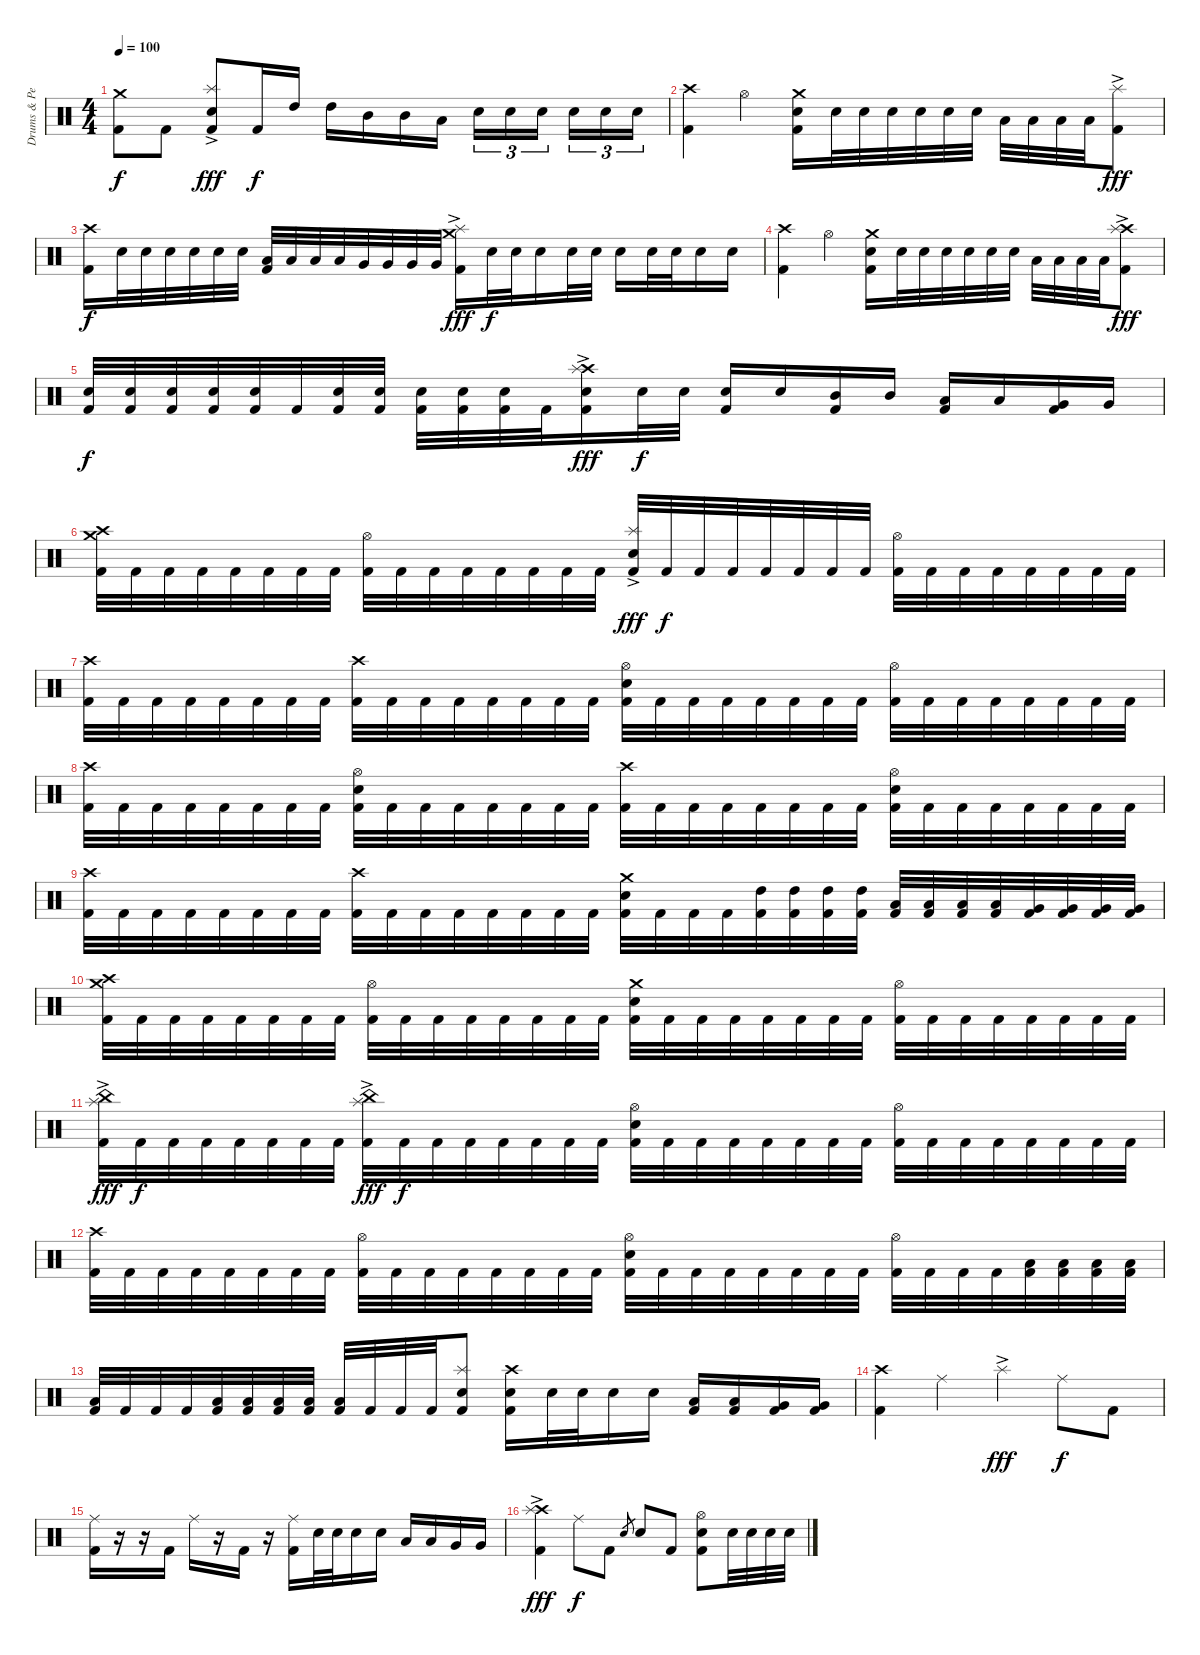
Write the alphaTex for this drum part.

\track ("Drums & Percussion" "Drums & Pe") {instrument percussion}
\staff {score}
\articulation defaults
\ts (4 4)
\tempo 100
\clef neutral
\ks c
("Crash medium (hit)" "Kick (hit) 2").8{dy f} "Kick (hit) 2".8 ("Splash (hit)"{ac} "Electric Snare (hit)" "Kick (hit) 2").8{dy fff} "Kick (hit) 2".16{dy f} "High Tom (hit)".16 "High Tom (hit)".16 "Mid Tom (hit)".16 "Mid Tom (hit)".16 "Low Tom (hit)".16 "Electric Snare (hit)".16{tu (3 2)} "Electric Snare (hit)".16{tu (3 2)} "Electric Snare (hit)".16{tu (3 2) beam splitsecondary} "Electric Snare (hit)".16{tu (3 2)} "Electric Snare (hit)".16{tu (3 2)} "Electric Snare (hit)".16{tu (3 2)} |
("Crash high (hit)" "Kick (hit) 2").4 "Hi-Hat (open)".4 ("Crash medium (hit)" "Electric Snare (hit)" "Kick (hit) 2").16 "Electric Snare (hit)".32 "Electric Snare (hit)".32 "Electric Snare (hit)".32 "Electric Snare (hit)".32 "Electric Snare (hit)".32 "Electric Snare (hit)".32 "Low Tom (hit)".32 "Low Tom (hit)".32 "Low Tom (hit)".32 "Low Tom (hit)".32 ("Splash (hit)"{ac} "Kick (hit) 2").8{dy fff} |
("Crash high (hit)" "Kick (hit) 2").16{dy f} "Electric Snare (hit)".32 "Electric Snare (hit)".32 "Electric Snare (hit)".32 "Electric Snare (hit)".32 "Electric Snare (hit)".32 "Electric Snare (hit)".32 ("Low Tom (hit)" "Kick (hit) 2").32 "Low Tom (hit)".32 "Low Tom (hit)".32 "Low Tom (hit)".32 "Very Low Tom (hit)".32 "Very Low Tom (hit)".32 "Very Low Tom (hit)".32 "Very Low Tom (hit)".32 ("Crash medium (hit)" "Splash (hit)"{ac} "Kick (hit) 2").16{dy fff} "Electric Snare (hit)".32{dy f} "Electric Snare (hit)".32 "Electric Snare (hit)".16 "Electric Snare (hit)".32 "Electric Snare (hit)".32 "Electric Snare (hit)".16 "Electric Snare (hit)".32 "Electric Snare (hit)".32 "Electric Snare (hit)".16 "Electric Snare (hit)".16 |
("Crash high (hit)" "Kick (hit) 2").4 "Hi-Hat (open)".4 ("Crash medium (hit)" "Electric Snare (hit)" "Kick (hit) 2").16 "Electric Snare (hit)".32 "Electric Snare (hit)".32 "Electric Snare (hit)".32 "Electric Snare (hit)".32 "Electric Snare (hit)".32 "Electric Snare (hit)".32 "Low Tom (hit)".32 "Low Tom (hit)".32 "Low Tom (hit)".32 "Low Tom (hit)".32 ("Crash high (hit)" "Splash (hit)"{ac} "Kick (hit) 2").8{dy fff} |
("Electric Snare (hit)" "Kick (hit) 2").32{dy f} ("Electric Snare (hit)" "Kick (hit) 2").32 ("Electric Snare (hit)" "Kick (hit) 2").32 ("Electric Snare (hit)" "Kick (hit) 2").32 ("Electric Snare (hit)" "Kick (hit) 2").32 "Kick (hit) 2".32 ("Electric Snare (hit)" "Kick (hit) 2").32 ("Electric Snare (hit)" "Kick (hit) 2").32 ("Electric Snare (hit)" "Kick (hit) 2").32 ("Electric Snare (hit)" "Kick (hit) 2").32 ("Electric Snare (hit)" "Kick (hit) 2").32 "Kick (hit) 2".32 ("Crash high (hit)" "Splash (hit)"{ac} "Electric Snare (hit)" "Kick (hit) 2").16{dy fff} "Electric Snare (hit)".32{dy f} "Electric Snare (hit)".32 ("Electric Snare (hit)" "Kick (hit) 2").16 "Electric Snare (hit)".16 ("Mid Tom (hit)" "Kick (hit) 2").16 "Mid Tom (hit)".16 ("Low Tom (hit)" "Kick (hit) 2").16 "Low Tom (hit)".16 ("Very Low Tom (hit)" "Kick (hit) 2").16 "Very Low Tom (hit)".16 |
("Crash high (hit)" "Crash medium (hit)" "Kick (hit) 2").32 "Kick (hit) 2".32 "Kick (hit) 2".32 "Kick (hit) 2".32 "Kick (hit) 2".32 "Kick (hit) 2".32 "Kick (hit) 2".32 "Kick (hit) 2".32 ("Hi-Hat (open)" "Kick (hit) 2").32 "Kick (hit) 2".32 "Kick (hit) 2".32 "Kick (hit) 2".32 "Kick (hit) 2".32 "Kick (hit) 2".32 "Kick (hit) 2".32 "Kick (hit) 2".32 ("Splash (hit)"{ac} "Electric Snare (hit)" "Kick (hit) 2").32{dy fff} "Kick (hit) 2".32{dy f} "Kick (hit) 2".32 "Kick (hit) 2".32 "Kick (hit) 2".32 "Kick (hit) 2".32 "Kick (hit) 2".32 "Kick (hit) 2".32 ("Hi-Hat (open)" "Kick (hit) 2").32 "Kick (hit) 2".32 "Kick (hit) 2".32 "Kick (hit) 2".32 "Kick (hit) 2".32 "Kick (hit) 2".32 "Kick (hit) 2".32 "Kick (hit) 2".32 |
("Crash high (hit)" "Kick (hit) 2").32 "Kick (hit) 2".32 "Kick (hit) 2".32 "Kick (hit) 2".32 "Kick (hit) 2".32 "Kick (hit) 2".32 "Kick (hit) 2".32 "Kick (hit) 2".32 ("Crash high (hit)" "Kick (hit) 2").32 "Kick (hit) 2".32 "Kick (hit) 2".32 "Kick (hit) 2".32 "Kick (hit) 2".32 "Kick (hit) 2".32 "Kick (hit) 2".32 "Kick (hit) 2".32 ("Hi-Hat (open)" "Electric Snare (hit)" "Kick (hit) 2").32 "Kick (hit) 2".32 "Kick (hit) 2".32 "Kick (hit) 2".32 "Kick (hit) 2".32 "Kick (hit) 2".32 "Kick (hit) 2".32 "Kick (hit) 2".32 ("Hi-Hat (open)" "Kick (hit) 2").32 "Kick (hit) 2".32 "Kick (hit) 2".32 "Kick (hit) 2".32 "Kick (hit) 2".32 "Kick (hit) 2".32 "Kick (hit) 2".32 "Kick (hit) 2".32 |
("Crash high (hit)" "Kick (hit) 2").32 "Kick (hit) 2".32 "Kick (hit) 2".32 "Kick (hit) 2".32 "Kick (hit) 2".32 "Kick (hit) 2".32 "Kick (hit) 2".32 "Kick (hit) 2".32 ("Hi-Hat (open)" "Electric Snare (hit)" "Kick (hit) 2").32 "Kick (hit) 2".32 "Kick (hit) 2".32 "Kick (hit) 2".32 "Kick (hit) 2".32 "Kick (hit) 2".32 "Kick (hit) 2".32 "Kick (hit) 2".32 ("Crash high (hit)" "Kick (hit) 2").32 "Kick (hit) 2".32 "Kick (hit) 2".32 "Kick (hit) 2".32 "Kick (hit) 2".32 "Kick (hit) 2".32 "Kick (hit) 2".32 "Kick (hit) 2".32 ("Hi-Hat (open)" "Electric Snare (hit)" "Kick (hit) 2").32 "Kick (hit) 2".32 "Kick (hit) 2".32 "Kick (hit) 2".32 "Kick (hit) 2".32 "Kick (hit) 2".32 "Kick (hit) 2".32 "Kick (hit) 2".32 |
("Crash high (hit)" "Kick (hit) 2").32 "Kick (hit) 2".32 "Kick (hit) 2".32 "Kick (hit) 2".32 "Kick (hit) 2".32 "Kick (hit) 2".32 "Kick (hit) 2".32 "Kick (hit) 2".32 ("Crash high (hit)" "Kick (hit) 2").32 "Kick (hit) 2".32 "Kick (hit) 2".32 "Kick (hit) 2".32 "Kick (hit) 2".32 "Kick (hit) 2".32 "Kick (hit) 2".32 "Kick (hit) 2".32 ("Crash medium (hit)" "Electric Snare (hit)" "Kick (hit) 2").32 "Kick (hit) 2".32 "Kick (hit) 2".32 "Kick (hit) 2".32 ("High Tom (hit)" "Kick (hit) 2").32 ("High Tom (hit)" "Kick (hit) 2").32 ("High Tom (hit)" "Kick (hit) 2").32 ("High Tom (hit)" "Kick (hit) 2").32 ("Low Tom (hit)" "Kick (hit) 2").32 ("Low Tom (hit)" "Kick (hit) 2").32 ("Low Tom (hit)" "Kick (hit) 2").32 ("Low Tom (hit)" "Kick (hit) 2").32 ("Very Low Tom (hit)" "Kick (hit) 2").32 ("Very Low Tom (hit)" "Kick (hit) 2").32 ("Very Low Tom (hit)" "Kick (hit) 2").32 ("Very Low Tom (hit)" "Kick (hit) 2").32 |
("Crash high (hit)" "Crash medium (hit)" "Kick (hit) 2").32 "Kick (hit) 2".32 "Kick (hit) 2".32 "Kick (hit) 2".32 "Kick (hit) 2".32 "Kick (hit) 2".32 "Kick (hit) 2".32 "Kick (hit) 2".32 ("Hi-Hat (open)" "Kick (hit) 2").32 "Kick (hit) 2".32 "Kick (hit) 2".32 "Kick (hit) 2".32 "Kick (hit) 2".32 "Kick (hit) 2".32 "Kick (hit) 2".32 "Kick (hit) 2".32 ("Crash medium (hit)" "Electric Snare (hit)" "Kick (hit) 2").32 "Kick (hit) 2".32 "Kick (hit) 2".32 "Kick (hit) 2".32 "Kick (hit) 2".32 "Kick (hit) 2".32 "Kick (hit) 2".32 "Kick (hit) 2".32 ("Hi-Hat (open)" "Kick (hit) 2").32 "Kick (hit) 2".32 "Kick (hit) 2".32 "Kick (hit) 2".32 "Kick (hit) 2".32 "Kick (hit) 2".32 "Kick (hit) 2".32 "Kick (hit) 2".32 |
("Splash (hit)"{ac} "China (hit)" "Kick (hit) 2").32{dy fff} "Kick (hit) 2".32{dy f} "Kick (hit) 2".32 "Kick (hit) 2".32 "Kick (hit) 2".32 "Kick (hit) 2".32 "Kick (hit) 2".32 "Kick (hit) 2".32 ("Splash (hit)"{ac} "China (hit)" "Kick (hit) 2").32{dy fff} "Kick (hit) 2".32{dy f} "Kick (hit) 2".32 "Kick (hit) 2".32 "Kick (hit) 2".32 "Kick (hit) 2".32 "Kick (hit) 2".32 "Kick (hit) 2".32 ("Hi-Hat (open)" "Electric Snare (hit)" "Kick (hit) 2").32 "Kick (hit) 2".32 "Kick (hit) 2".32 "Kick (hit) 2".32 "Kick (hit) 2".32 "Kick (hit) 2".32 "Kick (hit) 2".32 "Kick (hit) 2".32 ("Hi-Hat (open)" "Kick (hit) 2").32 "Kick (hit) 2".32 "Kick (hit) 2".32 "Kick (hit) 2".32 "Kick (hit) 2".32 "Kick (hit) 2".32 "Kick (hit) 2".32 "Kick (hit) 2".32 |
("Crash high (hit)" "Kick (hit) 2").32 "Kick (hit) 2".32 "Kick (hit) 2".32 "Kick (hit) 2".32 "Kick (hit) 2".32 "Kick (hit) 2".32 "Kick (hit) 2".32 "Kick (hit) 2".32 ("Hi-Hat (open)" "Kick (hit) 2").32 "Kick (hit) 2".32 "Kick (hit) 2".32 "Kick (hit) 2".32 "Kick (hit) 2".32 "Kick (hit) 2".32 "Kick (hit) 2".32 "Kick (hit) 2".32 ("Hi-Hat (open)" "Electric Snare (hit)" "Kick (hit) 2").32 "Kick (hit) 2".32 "Kick (hit) 2".32 "Kick (hit) 2".32 "Kick (hit) 2".32 "Kick (hit) 2".32 "Kick (hit) 2".32 "Kick (hit) 2".32 ("Hi-Hat (open)" "Kick (hit) 2").32 "Kick (hit) 2".32 "Kick (hit) 2".32 "Kick (hit) 2".32 ("Low Floor Tom (hit)" "Kick (hit) 2").32 ("Low Floor Tom (hit)" "Kick (hit) 2").32 ("Low Floor Tom (hit)" "Kick (hit) 2").32 ("Low Floor Tom (hit)" "Kick (hit) 2").32 |
("Low Floor Tom (hit)" "Kick (hit) 2").32 "Kick (hit) 2".32 "Kick (hit) 2".32 "Kick (hit) 2".32 ("Low Floor Tom (hit)" "Kick (hit) 2").32 ("Low Floor Tom (hit)" "Kick (hit) 2").32 ("Low Floor Tom (hit)" "Kick (hit) 2").32 ("Low Floor Tom (hit)" "Kick (hit) 2").32 ("Low Floor Tom (hit)" "Kick (hit) 2").32 "Kick (hit) 2".32 "Kick (hit) 2".32 "Kick (hit) 2".32 ("Splash (hit)" "Electric Snare (hit)" "Kick (hit) 2").8 ("Crash high (hit)" "Electric Snare (hit)" "Kick (hit) 2").16 "Electric Snare (hit)".32 "Electric Snare (hit)".32 "Electric Snare (hit)".16 "Electric Snare (hit)".16 ("Low Tom (hit)" "Kick (hit) 2").16 ("Low Tom (hit)" "Kick (hit) 2").16 ("Very Low Tom (hit)" "Kick (hit) 2").16 ("Very Low Tom (hit)" "Kick (hit) 2").16 |
("Crash high (hit)" "Kick (hit) 2").4 "Ride (middle)".4 "Splash (hit)"{ac}.4{dy fff} "Ride (middle)".8{dy f} "Kick (hit) 2".8 |
("Ride (middle)" "Kick (hit) 2").16 r.16 r.16 "Kick (hit) 2".16 "Ride (middle)".16 r.16 "Kick (hit) 2".16 r.16 ("Ride (middle)" "Kick (hit) 2").16 "Electric Snare (hit)".32 "Electric Snare (hit)".32 "Electric Snare (hit)".16 "Electric Snare (hit)".16 "Low Tom (hit)".16 "Low Tom (hit)".16 "Very Low Tom (hit)".16 "Very Low Tom (hit)".16 |
("Crash high (hit)" "Splash (hit)"{ac} "Kick (hit) 2").4{dy fff} "Ride (middle)".8{dy f} "Kick (hit) 2".8 "Electric Snare (hit)".8{gr} "Electric Snare (hit)".8 "Kick (hit) 2".8 ("Hi-Hat (open)" "Electric Snare (hit)" "Kick (hit) 2").8 "Electric Snare (hit)".32 "Electric Snare (hit)".32 "Electric Snare (hit)".32 "Electric Snare (hit)".32
